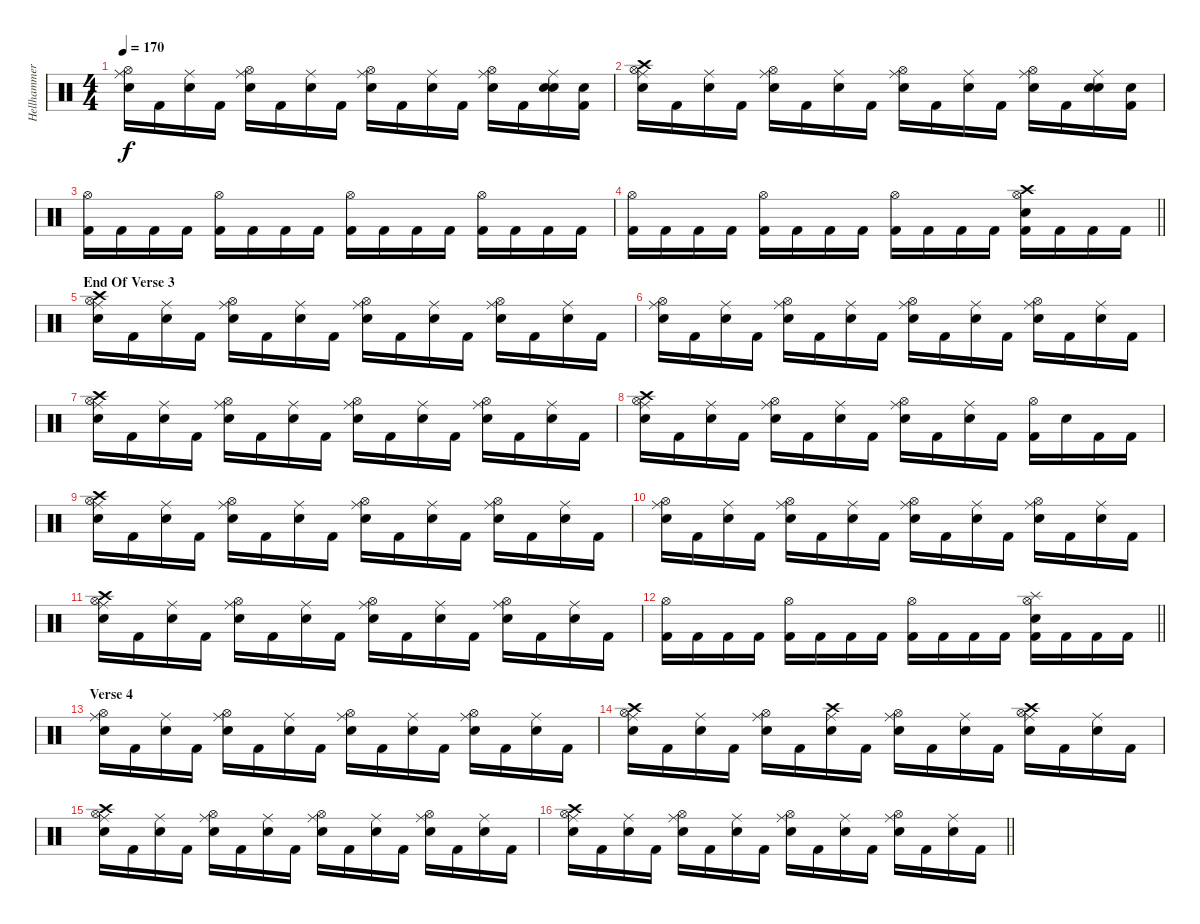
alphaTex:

\track ("Hellhammer" "Hellhammer") {instrument percussion}
\staff {score}
\articulation defaults
\ts (4 4)
\section ("" " ")
\tempo 170
\clef neutral
\ks c
("Hi-Hat (open)" "Ride (middle)" "Electric Snare (hit)").16{dy f} "Kick (hit) 2".16 ("Ride (middle)" "Electric Snare (hit)").16 "Kick (hit) 2".16 ("Hi-Hat (open)" "Ride (middle)" "Electric Snare (hit)").16 "Kick (hit) 2".16 ("Ride (middle)" "Electric Snare (hit)").16 "Kick (hit) 2".16 ("Hi-Hat (open)" "Ride (middle)" "Electric Snare (hit)").16 "Kick (hit) 2".16 ("Ride (middle)" "Electric Snare (hit)").16 "Kick (hit) 2".16 ("Hi-Hat (open)" "Ride (middle)" "Electric Snare (hit)").16 "Kick (hit) 2".16 ("Snare (hit) 2" "Ride (middle)" "Electric Snare (hit)").16 ("Snare (hit) 2" "Kick (hit) 2").16 |
("Crash high (hit)" "Hi-Hat (open)" "Ride (middle)" "Electric Snare (hit)").16 "Kick (hit) 2".16 ("Ride (middle)" "Electric Snare (hit)").16 "Kick (hit) 2".16 ("Hi-Hat (open)" "Ride (middle)" "Electric Snare (hit)").16 "Kick (hit) 2".16 ("Ride (middle)" "Electric Snare (hit)").16 "Kick (hit) 2".16 ("Hi-Hat (open)" "Ride (middle)" "Electric Snare (hit)").16 "Kick (hit) 2".16 ("Ride (middle)" "Electric Snare (hit)").16 "Kick (hit) 2".16 ("Hi-Hat (open)" "Ride (middle)" "Electric Snare (hit)").16 "Kick (hit) 2".16 ("Snare (hit) 2" "Ride (middle)" "Electric Snare (hit)").16 ("Snare (hit) 2" "Kick (hit) 2").16 |
("Hi-Hat (open)" "Kick (hit) 2").16 "Kick (hit) 2".16 "Kick (hit) 2".16 "Kick (hit) 2".16 ("Hi-Hat (open)" "Kick (hit) 2").16 "Kick (hit) 2".16 "Kick (hit) 2".16 "Kick (hit) 2".16 ("Hi-Hat (open)" "Kick (hit) 2").16 "Kick (hit) 2".16 "Kick (hit) 2".16 "Kick (hit) 2".16 ("Hi-Hat (open)" "Kick (hit) 2").16 "Kick (hit) 2".16 "Kick (hit) 2".16 "Kick (hit) 2".16 |
\barLineRight lightlight
("Hi-Hat (open)" "Kick (hit) 2").16 "Kick (hit) 2".16 "Kick (hit) 2".16 "Kick (hit) 2".16 ("Hi-Hat (open)" "Kick (hit) 2").16 "Kick (hit) 2".16 "Kick (hit) 2".16 "Kick (hit) 2".16 ("Hi-Hat (open)" "Kick (hit) 2").16 "Kick (hit) 2".16 "Kick (hit) 2".16 "Kick (hit) 2".16 ("Hi-Hat (open)" "Crash high (hit)" "Snare (hit) 2" "Kick (hit) 2").16 "Kick (hit) 2".16 "Kick (hit) 2".16 "Kick (hit) 2".16 |
\section ("" "End Of Verse 3")
("Crash high (hit)" "Hi-Hat (open)" "Ride (middle)" "Electric Snare (hit)").16 "Kick (hit) 2".16 ("Ride (middle)" "Electric Snare (hit)").16 "Kick (hit) 2".16 ("Hi-Hat (open)" "Ride (middle)" "Electric Snare (hit)").16 "Kick (hit) 2".16 ("Ride (middle)" "Electric Snare (hit)").16 "Kick (hit) 2".16 ("Hi-Hat (open)" "Ride (middle)" "Electric Snare (hit)").16 "Kick (hit) 2".16 ("Ride (middle)" "Electric Snare (hit)").16 "Kick (hit) 2".16 ("Hi-Hat (open)" "Ride (middle)" "Electric Snare (hit)").16 "Kick (hit) 2".16 ("Ride (middle)" "Electric Snare (hit)").16 "Kick (hit) 2".16 |
("Hi-Hat (open)" "Ride (middle)" "Electric Snare (hit)").16 "Kick (hit) 2".16 ("Ride (middle)" "Electric Snare (hit)").16 "Kick (hit) 2".16 ("Hi-Hat (open)" "Ride (middle)" "Electric Snare (hit)").16 "Kick (hit) 2".16 ("Ride (middle)" "Electric Snare (hit)").16 "Kick (hit) 2".16 ("Hi-Hat (open)" "Ride (middle)" "Electric Snare (hit)").16 "Kick (hit) 2".16 ("Ride (middle)" "Electric Snare (hit)").16 "Kick (hit) 2".16 ("Hi-Hat (open)" "Ride (middle)" "Electric Snare (hit)").16 "Kick (hit) 2".16 ("Ride (middle)" "Electric Snare (hit)").16 "Kick (hit) 2".16 |
("Crash high (hit)" "Hi-Hat (open)" "Ride (middle)" "Electric Snare (hit)").16 "Kick (hit) 2".16 ("Ride (middle)" "Electric Snare (hit)").16 "Kick (hit) 2".16 ("Hi-Hat (open)" "Ride (middle)" "Electric Snare (hit)").16 "Kick (hit) 2".16 ("Ride (middle)" "Electric Snare (hit)").16 "Kick (hit) 2".16 ("Hi-Hat (open)" "Ride (middle)" "Electric Snare (hit)").16 "Kick (hit) 2".16 ("Ride (middle)" "Electric Snare (hit)").16 "Kick (hit) 2".16 ("Hi-Hat (open)" "Ride (middle)" "Electric Snare (hit)").16 "Kick (hit) 2".16 ("Ride (middle)" "Electric Snare (hit)").16 "Kick (hit) 2".16 |
("Crash high (hit)" "Hi-Hat (open)" "Ride (middle)" "Electric Snare (hit)").16 "Kick (hit) 2".16 ("Ride (middle)" "Electric Snare (hit)").16 "Kick (hit) 2".16 ("Hi-Hat (open)" "Ride (middle)" "Electric Snare (hit)").16 "Kick (hit) 2".16 ("Ride (middle)" "Electric Snare (hit)").16 "Kick (hit) 2".16 ("Hi-Hat (open)" "Ride (middle)" "Electric Snare (hit)").16 "Kick (hit) 2".16 ("Ride (middle)" "Electric Snare (hit)").16 "Kick (hit) 2".16 ("Hi-Hat (open)" "Kick (hit) 2").16 "Snare (hit) 2".16 "Kick (hit) 2".16 "Kick (hit) 2".16 |
("Crash high (hit)" "Hi-Hat (open)" "Ride (middle)" "Electric Snare (hit)").16 "Kick (hit) 2".16 ("Ride (middle)" "Electric Snare (hit)").16 "Kick (hit) 2".16 ("Hi-Hat (open)" "Ride (middle)" "Electric Snare (hit)").16 "Kick (hit) 2".16 ("Ride (middle)" "Electric Snare (hit)").16 "Kick (hit) 2".16 ("Hi-Hat (open)" "Ride (middle)" "Electric Snare (hit)").16 "Kick (hit) 2".16 ("Ride (middle)" "Electric Snare (hit)").16 "Kick (hit) 2".16 ("Hi-Hat (open)" "Ride (middle)" "Electric Snare (hit)").16 "Kick (hit) 2".16 ("Ride (middle)" "Electric Snare (hit)").16 "Kick (hit) 2".16 |
("Hi-Hat (open)" "Ride (middle)" "Electric Snare (hit)").16 "Kick (hit) 2".16 ("Ride (middle)" "Electric Snare (hit)").16 "Kick (hit) 2".16 ("Hi-Hat (open)" "Ride (middle)" "Electric Snare (hit)").16 "Kick (hit) 2".16 ("Ride (middle)" "Electric Snare (hit)").16 "Kick (hit) 2".16 ("Hi-Hat (open)" "Ride (middle)" "Electric Snare (hit)").16 "Kick (hit) 2".16 ("Ride (middle)" "Electric Snare (hit)").16 "Kick (hit) 2".16 ("Hi-Hat (open)" "Ride (middle)" "Electric Snare (hit)").16 "Kick (hit) 2".16 ("Ride (middle)" "Electric Snare (hit)").16 "Kick (hit) 2".16 |
("Crash high (hit)" "Hi-Hat (open)" "Ride (middle)" "Electric Snare (hit)").16 "Kick (hit) 2".16 ("Ride (middle)" "Electric Snare (hit)").16 "Kick (hit) 2".16 ("Hi-Hat (open)" "Ride (middle)" "Electric Snare (hit)").16 "Kick (hit) 2".16 ("Ride (middle)" "Electric Snare (hit)").16 "Kick (hit) 2".16 ("Hi-Hat (open)" "Ride (middle)" "Electric Snare (hit)").16 "Kick (hit) 2".16 ("Ride (middle)" "Electric Snare (hit)").16 "Kick (hit) 2".16 ("Hi-Hat (open)" "Ride (middle)" "Electric Snare (hit)").16 "Kick (hit) 2".16 ("Ride (middle)" "Electric Snare (hit)").16 "Kick (hit) 2".16 |
\barLineRight lightlight
("Hi-Hat (open)" "Kick (hit) 2").16 "Kick (hit) 2".16 "Kick (hit) 2".16 "Kick (hit) 2".16 ("Hi-Hat (open)" "Kick (hit) 2").16 "Kick (hit) 2".16 "Kick (hit) 2".16 "Kick (hit) 2".16 ("Hi-Hat (open)" "Kick (hit) 2").16 "Kick (hit) 2".16 "Kick (hit) 2".16 "Kick (hit) 2".16 ("Hi-Hat (open)" "Splash (hit)" "Snare (hit) 2" "Kick (hit) 2").16 "Kick (hit) 2".16 "Kick (hit) 2".16 "Kick (hit) 2".16 |
\section ("" "Verse 4")
("Hi-Hat (open)" "Ride (middle)" "Electric Snare (hit)").16 "Kick (hit) 2".16 ("Ride (middle)" "Electric Snare (hit)").16 "Kick (hit) 2".16 ("Hi-Hat (open)" "Ride (middle)" "Electric Snare (hit)").16 "Kick (hit) 2".16 ("Ride (middle)" "Electric Snare (hit)").16 "Kick (hit) 2".16 ("Hi-Hat (open)" "Ride (middle)" "Electric Snare (hit)").16 "Kick (hit) 2".16 ("Ride (middle)" "Electric Snare (hit)").16 "Kick (hit) 2".16 ("Hi-Hat (open)" "Ride (middle)" "Electric Snare (hit)").16 "Kick (hit) 2".16 ("Ride (middle)" "Electric Snare (hit)").16 "Kick (hit) 2".16 |
("Crash high (hit)" "Hi-Hat (open)" "Ride (middle)" "Electric Snare (hit)").16 "Kick (hit) 2".16 ("Ride (middle)" "Electric Snare (hit)").16 "Kick (hit) 2".16 ("Hi-Hat (open)" "Ride (middle)" "Electric Snare (hit)").16 "Kick (hit) 2".16 ("Crash high (hit)" "Ride (middle)" "Electric Snare (hit)").16 "Kick (hit) 2".16 ("Hi-Hat (open)" "Ride (middle)" "Electric Snare (hit)").16 "Kick (hit) 2".16 ("Ride (middle)" "Electric Snare (hit)").16 "Kick (hit) 2".16 ("Crash high (hit)" "Hi-Hat (open)" "Ride (middle)" "Electric Snare (hit)").16 "Kick (hit) 2".16 ("Ride (middle)" "Electric Snare (hit)").16 "Kick (hit) 2".16 |
("Crash high (hit)" "Hi-Hat (open)" "Ride (middle)" "Electric Snare (hit)").16 "Kick (hit) 2".16 ("Ride (middle)" "Electric Snare (hit)").16 "Kick (hit) 2".16 ("Hi-Hat (open)" "Ride (middle)" "Electric Snare (hit)").16 "Kick (hit) 2".16 ("Ride (middle)" "Electric Snare (hit)").16 "Kick (hit) 2".16 ("Hi-Hat (open)" "Ride (middle)" "Electric Snare (hit)").16 "Kick (hit) 2".16 ("Ride (middle)" "Electric Snare (hit)").16 "Kick (hit) 2".16 ("Hi-Hat (open)" "Ride (middle)" "Electric Snare (hit)").16 "Kick (hit) 2".16 ("Ride (middle)" "Electric Snare (hit)").16 "Kick (hit) 2".16 |
\barLineRight lightlight
("Crash high (hit)" "Hi-Hat (open)" "Ride (middle)" "Electric Snare (hit)").16 "Kick (hit) 2".16 ("Ride (middle)" "Electric Snare (hit)").16 "Kick (hit) 2".16 ("Hi-Hat (open)" "Ride (middle)" "Electric Snare (hit)").16 "Kick (hit) 2".16 ("Ride (middle)" "Electric Snare (hit)").16 "Kick (hit) 2".16 ("Hi-Hat (open)" "Ride (middle)" "Electric Snare (hit)").16 "Kick (hit) 2".16 ("Ride (middle)" "Electric Snare (hit)").16 "Kick (hit) 2".16 ("Hi-Hat (open)" "Ride (middle)" "Electric Snare (hit)").16 "Kick (hit) 2".16 ("Ride (middle)" "Electric Snare (hit)").16 "Kick (hit) 2".16
